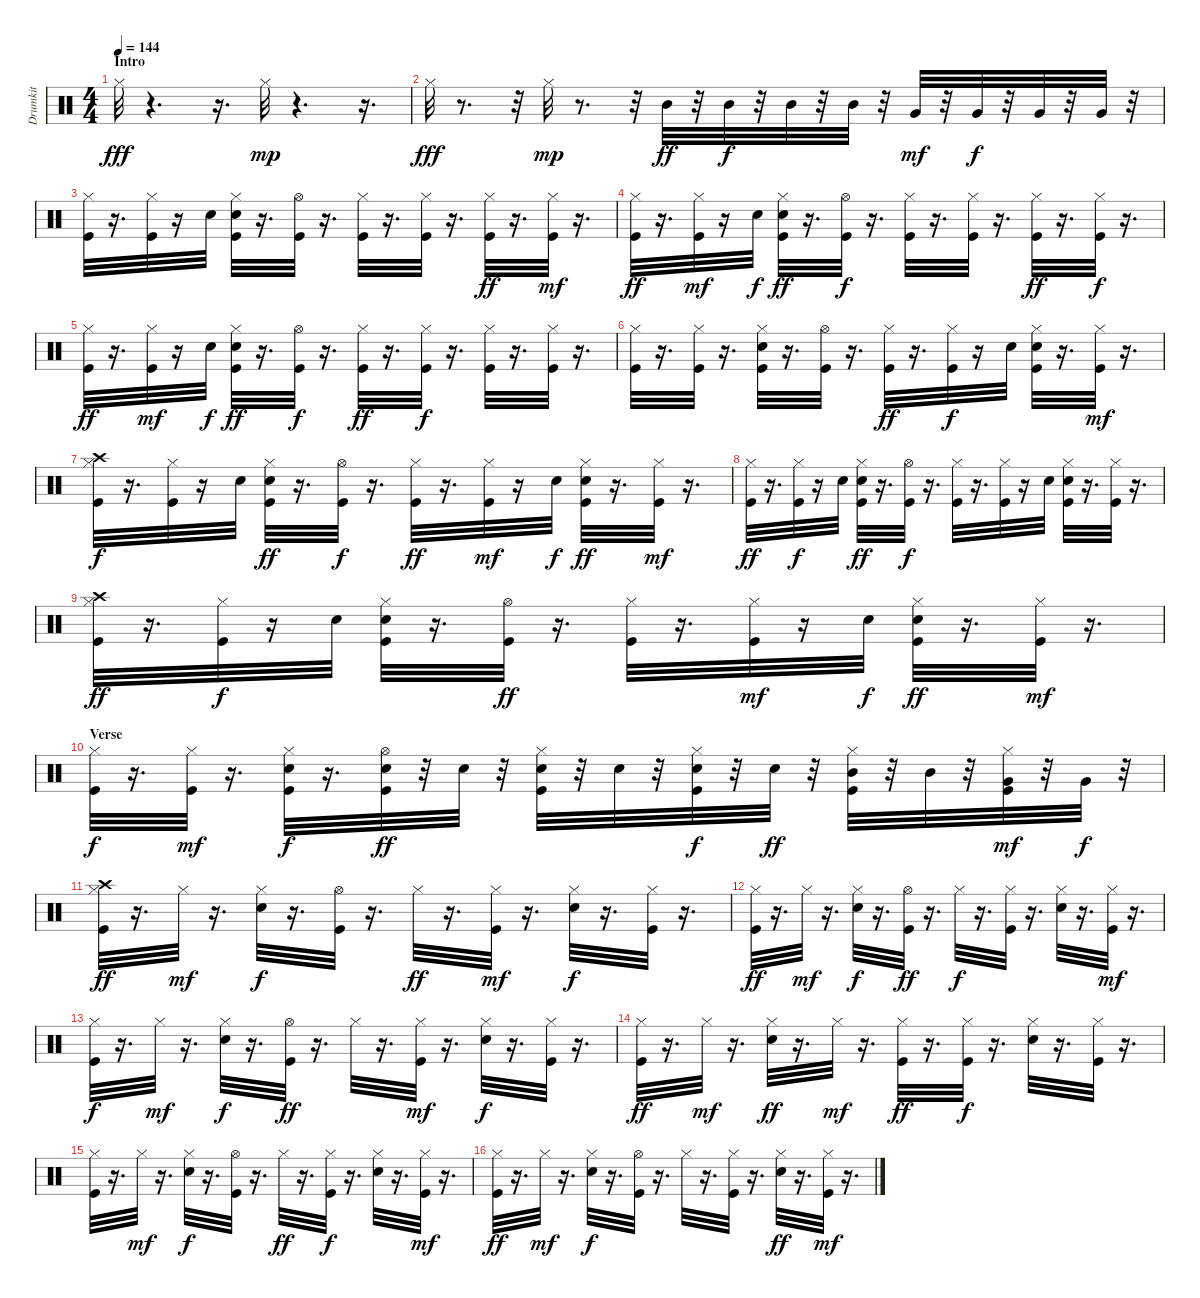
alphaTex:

\track ("Drumkit" "Drumkit") {instrument percussion}
\staff {score}
\articulation defaults
\ts (4 4)
\section ("" "Intro")
\tempo 144
\clef neutral
\ks c "Hi-Hat (closed)".32{dy fff}
r.4{d} r.16{d} "Hi-Hat (closed)".32{dy mp} r.4{d} r.16{d} |
"Hi-Hat (closed)".32{dy fff} r.8{d} r.32 "Hi-Hat (closed)".32{dy mp} r.8{d} r.32 "Mid Tom (hit)".32{dy ff} r.32 "Mid Tom (hit)".32{dy f} r.32 "Mid Tom (hit)".32 r.32 "Mid Tom (hit)".32 r.32 "Very Low Tom (hit)".32{dy mf} r.32 "Very Low Tom (hit)".32{dy f} r.32 "Very Low Tom (hit)".32 r.32 "Very Low Tom (hit)".32 r.32 |
("Kick (hit)" "Hi-Hat (closed)").32 r.16{d} ("Kick (hit)" "Hi-Hat (closed)").32 r.16 "Snare (hit) 2".32 ("Snare (hit) 2" "Hi-Hat (closed)" "Kick (hit)").32 r.16{d} ("Kick (hit)" "Hi-Hat (open)").32 r.16{d} ("Hi-Hat (closed)" "Kick (hit)").32 r.16{d} ("Kick (hit)" "Hi-Hat (closed)").32 r.16{d} ("Hi-Hat (closed)" "Kick (hit)").32{dy ff} r.16{d} ("Hi-Hat (closed)" "Kick (hit)").32{dy mf} r.16{d} |
("Hi-Hat (closed)" "Kick (hit)").32{dy ff} r.16{d} ("Hi-Hat (closed)" "Kick (hit)").32{dy mf} r.16 "Snare (hit) 2".32{dy f} ("Hi-Hat (closed)" "Snare (hit) 2" "Kick (hit)").32{dy ff} r.16{d} ("Kick (hit)" "Hi-Hat (open)").32{dy f} r.16{d} ("Kick (hit)" "Hi-Hat (closed)").32 r.16{d} ("Kick (hit)" "Hi-Hat (closed)").32 r.16{d} ("Hi-Hat (closed)" "Kick (hit)").32{dy ff} r.16{d} ("Kick (hit)" "Hi-Hat (closed)").32{dy f} r.16{d} |
("Kick (hit)" "Hi-Hat (closed)").32{dy ff} r.16{d} ("Hi-Hat (closed)" "Kick (hit)").32{dy mf} r.16 "Snare (hit) 2".32{dy f} ("Kick (hit)" "Hi-Hat (closed)" "Snare (hit) 2").32{dy ff} r.16{d} ("Kick (hit)" "Hi-Hat (open)").32{dy f} r.16{d} ("Hi-Hat (closed)" "Kick (hit)").32{dy ff} r.16{d} ("Kick (hit)" "Hi-Hat (closed)").32{dy f} r.16{d} ("Kick (hit)" "Hi-Hat (closed)").32 r.16{d} ("Kick (hit)" "Hi-Hat (closed)").32 r.16{d} |
("Hi-Hat (closed)" "Kick (hit)").32 r.16{d} ("Kick (hit)" "Hi-Hat (closed)").32 r.16{d} ("Snare (hit) 2" "Kick (hit)" "Hi-Hat (closed)").32 r.16{d} ("Kick (hit)" "Hi-Hat (open)").32 r.16{d} ("Hi-Hat (closed)" "Kick (hit)").32{dy ff} r.16{d} ("Kick (hit)" "Hi-Hat (closed)").32{dy f} r.16 "Snare (hit) 2".32 ("Snare (hit) 2" "Hi-Hat (closed)" "Kick (hit)").32 r.16{d} ("Hi-Hat (closed)" "Kick (hit)").32{dy mf} r.16{d} |
("Hi-Hat (closed)" "Crash high (hit)" "Kick (hit)").32{dy f} r.16{d} ("Kick (hit)" "Hi-Hat (closed)").32 r.16 "Snare (hit) 2".32 ("Kick (hit)" "Snare (hit) 2" "Hi-Hat (closed)").32{dy ff} r.16{d} ("Hi-Hat (open)" "Kick (hit)").32{dy f} r.16{d} ("Hi-Hat (closed)" "Kick (hit)").32{dy ff} r.16{d} ("Hi-Hat (closed)" "Kick (hit)").32{dy mf} r.16 "Snare (hit) 2".32{dy f} ("Hi-Hat (closed)" "Kick (hit)" "Snare (hit) 2").32{dy ff} r.16{d} ("Hi-Hat (closed)" "Kick (hit)").32{dy mf} r.16{d} |
("Kick (hit)" "Hi-Hat (closed)").32{dy ff} r.16{d} ("Kick (hit)" "Hi-Hat (closed)").32{dy f} r.16 "Snare (hit) 2".32 ("Hi-Hat (closed)" "Kick (hit)" "Snare (hit) 2").32{dy ff} r.16{d} ("Kick (hit)" "Hi-Hat (open)").32{dy f} r.16{d} ("Kick (hit)" "Hi-Hat (closed)").32 r.16{d} ("Kick (hit)" "Hi-Hat (closed)").32 r.16 "Snare (hit) 2".32 ("Snare (hit) 2" "Hi-Hat (closed)" "Kick (hit)").32 r.16{d} ("Kick (hit)" "Hi-Hat (closed)").32 r.16{d} |
("Kick (hit)" "Crash high (hit)" "Hi-Hat (closed)").32{dy ff} r.16{d} ("Kick (hit)" "Hi-Hat (closed)").32{dy f} r.16 "Snare (hit) 2".32 ("Snare (hit) 2" "Kick (hit)" "Hi-Hat (closed)").32 r.16{d} ("Hi-Hat (open)" "Kick (hit)").32{dy ff} r.16{d} ("Kick (hit)" "Hi-Hat (closed)").32 r.16{d} ("Hi-Hat (closed)" "Kick (hit)").32{dy mf} r.16 "Snare (hit) 2".32{dy f} ("Kick (hit)" "Hi-Hat (closed)" "Snare (hit) 2").32{dy ff} r.16{d} ("Hi-Hat (closed)" "Kick (hit)").32{dy mf} r.16{d} |
\section ("" "Verse")
("Kick (hit)" "Hi-Hat (closed)").32{dy f} r.16{d} ("Hi-Hat (closed)" "Kick (hit)").32{dy mf} r.16{d} ("Snare (hit) 2" "Hi-Hat (closed)" "Kick (hit)").32{dy f} r.16{d} ("Hi-Hat (open)" "Snare (hit) 2" "Kick (hit)").32{dy ff} r.32 "Snare (hit) 2".32 r.32 ("Kick (hit)" "Snare (hit) 2" "Hi-Hat (closed)").32 r.32 "Snare (hit) 2".32 r.32 ("Kick (hit)" "Snare (hit) 2" "Hi-Hat (closed)").32{dy f} r.32 "Snare (hit) 2".32{dy ff} r.32 ("Hi-Hat (closed)" "Kick (hit)" "Mid Tom (hit)").32 r.32 "Mid Tom (hit)".32 r.32 ("Hi-Hat (closed)" "Very Low Tom (hit)" "Kick (hit)").32{dy mf} r.32 "Very Low Tom (hit)".32{dy f} r.32 |
("Kick (hit)" "Crash high (hit)" "Hi-Hat (closed)").32{dy ff} r.16{d} "Hi-Hat (closed)".32{dy mf} r.16{d} ("Hi-Hat (closed)" "Snare (hit) 2").32{dy f} r.16{d} ("Kick (hit)" "Hi-Hat (open)").32 r.16{d} "Hi-Hat (closed)".32{dy ff} r.16{d} ("Hi-Hat (closed)" "Kick (hit)").32{dy mf} r.16{d} ("Snare (hit) 2" "Hi-Hat (closed)").32{dy f} r.16{d} ("Kick (hit)" "Hi-Hat (closed)").32 r.16{d} |
("Kick (hit)" "Hi-Hat (closed)").32{dy ff} r.16{d} "Hi-Hat (closed)".32{dy mf} r.16{d} ("Snare (hit) 2" "Hi-Hat (closed)").32{dy f} r.16{d} ("Hi-Hat (open)" "Kick (hit)").32{dy ff} r.16{d} "Hi-Hat (closed)".32{dy f} r.16{d} ("Kick (hit)" "Hi-Hat (closed)").32 r.16{d} ("Snare (hit) 2" "Hi-Hat (closed)").32 r.16{d} ("Hi-Hat (closed)" "Kick (hit)").32{dy mf} r.16{d} |
("Kick (hit)" "Hi-Hat (closed)").32{dy f} r.16{d} "Hi-Hat (closed)".32{dy mf} r.16{d} ("Snare (hit) 2" "Hi-Hat (closed)").32{dy f} r.16{d} ("Hi-Hat (open)" "Kick (hit)").32{dy ff} r.16{d} "Hi-Hat (closed)".32 r.16{d} ("Hi-Hat (closed)" "Kick (hit)").32{dy mf} r.16{d} ("Snare (hit) 2" "Hi-Hat (closed)").32{dy f} r.16{d} ("Kick (hit)" "Hi-Hat (closed)").32 r.16{d} |
("Kick (hit)" "Hi-Hat (closed)").32{dy ff} r.16{d} "Hi-Hat (closed)".32{dy mf} r.16{d} ("Hi-Hat (closed)" "Snare (hit) 2").32{dy ff} r.16{d} "Hi-Hat (closed)".32{dy mf} r.16{d} ("Kick (hit)" "Hi-Hat (closed)").32{dy ff} r.16{d} ("Kick (hit)" "Hi-Hat (closed)").32{dy f} r.16{d} ("Snare (hit) 2" "Hi-Hat (closed)").32 r.16{d} ("Kick (hit)" "Hi-Hat (closed)").32 r.16{d} |
("Kick (hit)" "Hi-Hat (closed)").32 r.16{d} "Hi-Hat (closed)".32{dy mf} r.16{d} ("Hi-Hat (closed)" "Snare (hit) 2").32{dy f} r.16{d} ("Hi-Hat (open)" "Kick (hit)").32 r.16{d} "Hi-Hat (closed)".32{dy ff} r.16{d} ("Kick (hit)" "Hi-Hat (closed)").32{dy f} r.16{d} ("Hi-Hat (closed)" "Snare (hit) 2").32 r.16{d} ("Hi-Hat (closed)" "Kick (hit)").32{dy mf} r.16{d} |
("Kick (hit)" "Hi-Hat (closed)").32{dy ff} r.16{d} "Hi-Hat (closed)".32{dy mf} r.16{d} ("Snare (hit) 2" "Hi-Hat (closed)").32{dy f} r.16{d} ("Hi-Hat (open)" "Kick (hit)").32 r.16{d} "Hi-Hat (closed)".32 r.16{d} ("Kick (hit)" "Hi-Hat (closed)").32 r.16{d} ("Hi-Hat (closed)" "Snare (hit) 2").32{dy ff} r.16{d} ("Hi-Hat (closed)" "Kick (hit)").32{dy mf} r.16{d}
